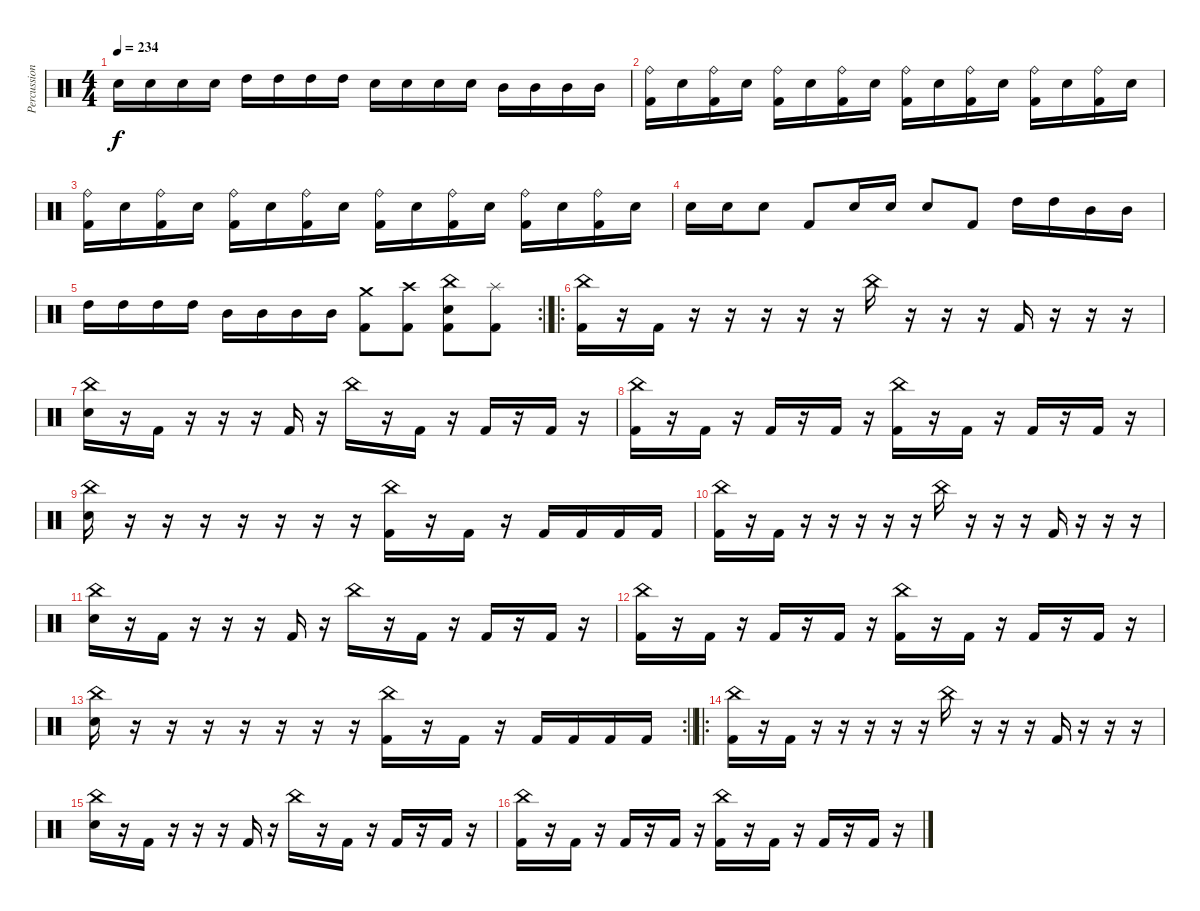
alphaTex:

\track ("Percussion" "Percussion") {instrument percussion}
\staff {score}
\articulation defaults
\ts (4 4)
\tempo 234
\clef neutral
\ks c "Electric Snare (hit)".16{dy f} "Electric Snare (hit)".16 "Electric Snare (hit)".16 "Electric Snare (hit)".16 "High Tom (hit)".16 "High Tom (hit)".16 "High Tom (hit)".16 "High Tom (hit)".16 "Electric Snare (hit)".16 "Electric Snare (hit)".16 "Electric Snare (hit)".16 "Electric Snare (hit)".16 "Mid Tom (hit)".16 "Mid Tom (hit)".16 "Mid Tom (hit)".16 "Mid Tom (hit)".16
|
("Ride (bell)" "Kick (hit) 2").16 "Electric Snare (hit)".16 ("Ride (bell)" "Kick (hit) 2").16 "Electric Snare (hit)".16 ("Ride (bell)" "Kick (hit) 2").16 "Electric Snare (hit)".16 ("Ride (bell)" "Kick (hit) 2").16 "Electric Snare (hit)".16 ("Ride (bell)" "Kick (hit) 2").16 "Electric Snare (hit)".16 ("Ride (bell)" "Kick (hit) 2").16 "Electric Snare (hit)".16 ("Ride (bell)" "Kick (hit) 2").16 "Electric Snare (hit)".16 ("Ride (bell)" "Kick (hit) 2").16 "Electric Snare (hit)".16 |
("Ride (bell)" "Kick (hit) 2").16 "Electric Snare (hit)".16 ("Ride (bell)" "Kick (hit) 2").16 "Electric Snare (hit)".16 ("Ride (bell)" "Kick (hit) 2").16 "Electric Snare (hit)".16 ("Ride (bell)" "Kick (hit) 2").16 "Electric Snare (hit)".16 ("Ride (bell)" "Kick (hit) 2").16 "Electric Snare (hit)".16 ("Ride (bell)" "Kick (hit) 2").16 "Electric Snare (hit)".16 ("Ride (bell)" "Kick (hit) 2").16 "Electric Snare (hit)".16 ("Ride (bell)" "Kick (hit) 2").16 "Electric Snare (hit)".16 |
"Electric Snare (hit)".16 "Electric Snare (hit)".16 "Electric Snare (hit)".8 "Kick (hit) 2".8 "Electric Snare (hit)".16 "Electric Snare (hit)".16 "Electric Snare (hit)".8 "Kick (hit) 2".8 "High Tom (hit)".16 "High Tom (hit)".16 "Mid Tom (hit)".16 "Mid Tom (hit)".16 |
\rc 2
\barLineRight lightlight "High Tom (hit)".16 "High Tom (hit)".16 "High Tom (hit)".16 "High Tom (hit)".16 "Mid Tom (hit)".16 "Mid Tom (hit)".16 "Mid Tom (hit)".16 "Mid Tom (hit)".16
("Crash medium (hit)" "Kick (hit) 2").8 ("Crash high (hit)" "Kick (hit) 2").8 ("China (hit)" "Electric Snare (hit)" "Kick (hit) 2").8 ("Splash (hit)" "Kick (hit) 2").8 |
\ro
("China (hit)" "Kick (hit) 2").16 r.16 "Kick (hit) 2".16 r.16 r.16 r.16 r.16 r.16 "China (hit)".16 r.16 r.16 r.16 "Kick (hit) 2".16 r.16 r.16 r.16 |
("China (hit)" "Electric Snare (hit)").16 r.16 "Kick (hit) 2".16 r.16 r.16 r.16 "Kick (hit) 2".16 r.16 "China (hit)".16 r.16 "Kick (hit) 2".16 r.16 "Kick (hit) 2".16 r.16 "Kick (hit) 2".16 r.16 |
("China (hit)" "Kick (hit) 2").16 r.16 "Kick (hit) 2".16 r.16 "Kick (hit) 2".16 r.16 "Kick (hit) 2".16 r.16 ("China (hit)" "Kick (hit) 2").16 r.16 "Kick (hit) 2".16 r.16 "Kick (hit) 2".16 r.16 "Kick (hit) 2".16 r.16 |
("China (hit)" "Electric Snare (hit)").16 r.16 r.16 r.16 r.16 r.16 r.16 r.16 ("China (hit)" "Kick (hit) 2").16 r.16 "Kick (hit) 2".16 r.16 "Kick (hit) 2".16 "Kick (hit) 2".16 "Kick (hit) 2".16 "Kick (hit) 2".16 |
("China (hit)" "Kick (hit) 2").16 r.16 "Kick (hit) 2".16 r.16 r.16 r.16 r.16 r.16 "China (hit)".16 r.16 r.16 r.16 "Kick (hit) 2".16 r.16 r.16 r.16 |
("China (hit)" "Electric Snare (hit)").16 r.16 "Kick (hit) 2".16 r.16 r.16 r.16 "Kick (hit) 2".16 r.16 "China (hit)".16 r.16 "Kick (hit) 2".16 r.16 "Kick (hit) 2".16 r.16 "Kick (hit) 2".16 r.16 |
("China (hit)" "Kick (hit) 2").16 r.16 "Kick (hit) 2".16 r.16 "Kick (hit) 2".16 r.16 "Kick (hit) 2".16 r.16 ("China (hit)" "Kick (hit) 2").16 r.16 "Kick (hit) 2".16 r.16 "Kick (hit) 2".16 r.16 "Kick (hit) 2".16 r.16 |
\rc 2
\barLineRight lightlight
("China (hit)" "Electric Snare (hit)").16 r.16 r.16 r.16 r.16 r.16 r.16 r.16 ("China (hit)" "Kick (hit) 2").16 r.16 "Kick (hit) 2".16 r.16 "Kick (hit) 2".16 "Kick (hit) 2".16 "Kick (hit) 2".16 "Kick (hit) 2".16 |
\ro
("China (hit)" "Kick (hit) 2").16 r.16 "Kick (hit) 2".16 r.16 r.16 r.16 r.16 r.16 "China (hit)".16 r.16 r.16 r.16 "Kick (hit) 2".16 r.16 r.16 r.16 |
("China (hit)" "Electric Snare (hit)").16 r.16 "Kick (hit) 2".16 r.16 r.16 r.16 "Kick (hit) 2".16 r.16 "China (hit)".16 r.16 "Kick (hit) 2".16 r.16 "Kick (hit) 2".16 r.16 "Kick (hit) 2".16 r.16 |
("China (hit)" "Kick (hit) 2").16 r.16 "Kick (hit) 2".16 r.16 "Kick (hit) 2".16 r.16 "Kick (hit) 2".16 r.16 ("China (hit)" "Kick (hit) 2").16 r.16 "Kick (hit) 2".16 r.16 "Kick (hit) 2".16 r.16 "Kick (hit) 2".16 r.16
